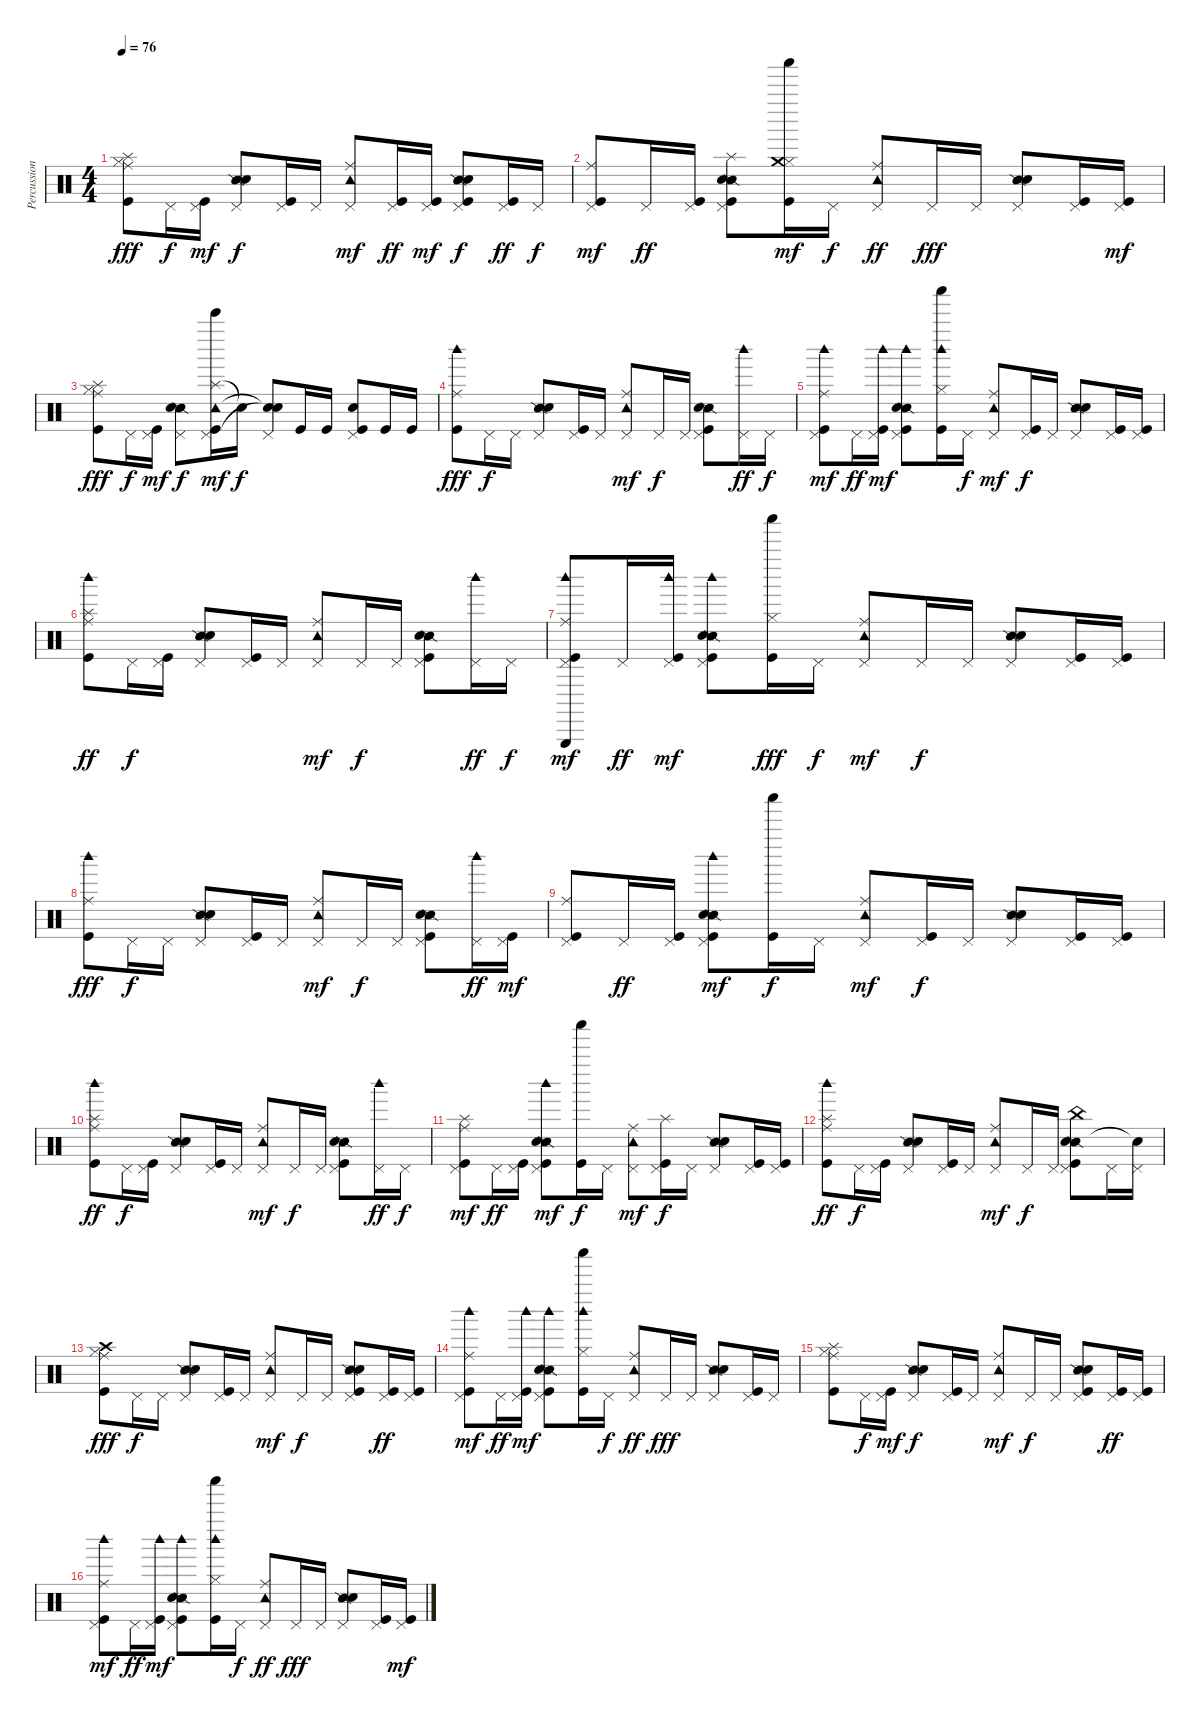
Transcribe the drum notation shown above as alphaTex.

\track ("Percussion" "Percussion") {instrument percussion}
\staff {score}
\articulation defaults
\ts (4 4)
\tempo 76
\clef neutral
\ks c
("Splash (hit)" "Ride (middle)" "Kick (hit)" "Hi-Hat (closed)").8{dy fff} "Pedal Hi-Hat (hit)".16{dy f} ("Pedal Hi-Hat (hit)" "Kick (hit)").16{dy mf} ("Pedal Hi-Hat (hit)" "Snare (side stick) 2" "Hand Clap (hit)").8{dy f} ("Pedal Hi-Hat (hit)" "Kick (hit)").16 "Pedal Hi-Hat (hit)".16 ("Pedal Hi-Hat (hit)" "Tambourine (hit)" "Ride (middle)").8{dy mf} ("Pedal Hi-Hat (hit)" "Kick (hit)").16{dy ff} ("Pedal Hi-Hat (hit)" "Kick (hit)").16{dy mf} ("Pedal Hi-Hat (hit)" "Snare (side stick) 2" "Kick (hit)" "Hand Clap (hit)").8{dy f} ("Pedal Hi-Hat (hit)" "Kick (hit)").16{dy ff} "Pedal Hi-Hat (hit)".16{dy f} |
("Pedal Hi-Hat (hit)" "Ride (middle)" "Kick (hit)").8{dy mf} "Pedal Hi-Hat (hit)".16{dy ff} ("Pedal Hi-Hat (hit)" "Kick (hit)").16 ("Splash (hit)" "Pedal Hi-Hat (hit)" "Snare (side stick) 2" "Kick (hit)" "Hand Clap (hit)").8 ("Hi-Hat (closed)" "Shaker (hit)" "Kick (hit)" "Crash medium (hit)").16{dy mf} "Pedal Hi-Hat (hit)".16{dy f} ("Pedal Hi-Hat (hit)" "Ride (middle)" "Tambourine (hit)").8{dy ff} "Pedal Hi-Hat (hit)".16{dy fff} "Pedal Hi-Hat (hit)".16 ("Pedal Hi-Hat (hit)" "Snare (side stick) 2" "Hand Clap (hit)").8 ("Pedal Hi-Hat (hit)" "Kick (hit)").16 ("Pedal Hi-Hat (hit)" "Kick (hit)").16{dy mf} |
("Splash (hit)" "Ride (middle)" "Kick (hit)" "Hi-Hat (closed)").8{dy fff} "Pedal Hi-Hat (hit)".16{dy f} ("Pedal Hi-Hat (hit)" "Kick (hit)").16{dy mf} ("Pedal Hi-Hat (hit)" "Snare (side stick) 2" "Hand Clap (hit)").8{dy f} ("Splash (hit)" "Pedal Hi-Hat (hit)" "Tambourine (hit)" "Kick (hit)" "Bell Tree (hit)").16{dy mf} "Snare (hit)"{t}.16{dy f} ("Pedal Hi-Hat (hit)" "Snare (hit)"{t} "Snare (hit)"{t}).8 "Kick (hit)".16 "Kick (hit)".16 ("Pedal Hi-Hat (hit)" "Kick (hit)" "Hand Clap (hit)").8 "Kick (hit)".16 "Kick (hit)".16 |
("Ride (middle)" "Woodblock high (hit)" "Kick (hit)").8{dy fff} "Pedal Hi-Hat (hit)".16{dy f} "Pedal Hi-Hat (hit)".16 ("Pedal Hi-Hat (hit)" "Snare (side stick) 2" "Hand Clap (hit)").8 ("Pedal Hi-Hat (hit)" "Kick (hit)").16 "Pedal Hi-Hat (hit)".16 ("Pedal Hi-Hat (hit)" "Tambourine (hit)" "Ride (middle)").8{dy mf} "Pedal Hi-Hat (hit)".16{dy f} "Pedal Hi-Hat (hit)".16 ("Pedal Hi-Hat (hit)" "Snare (side stick) 2" "Kick (hit)" "Hand Clap (hit)").8 ("Pedal Hi-Hat (hit)" "Woodblock high (hit)").16{dy ff} "Pedal Hi-Hat (hit)".16{dy f} |
("Pedal Hi-Hat (hit)" "Ride (middle)" "Kick (hit)" "Woodblock high (hit)").8{dy mf} "Pedal Hi-Hat (hit)".16{dy ff} ("Pedal Hi-Hat (hit)" "Kick (hit)" "Woodblock high (hit)").16{dy mf} ("Pedal Hi-Hat (hit)" "Snare (side stick) 2" "Kick (hit)" "Woodblock high (hit)" "Hand Clap (hit)").8 ("Hi-Hat (closed)" "Shaker (hit)" "Kick (hit)" "Woodblock high (hit)").16 "Pedal Hi-Hat (hit)".16{dy f} ("Pedal Hi-Hat (hit)" "Ride (middle)" "Tambourine (hit)").8{dy mf} ("Pedal Hi-Hat (hit)" "Kick (hit)").16{dy f} "Pedal Hi-Hat (hit)".16 ("Pedal Hi-Hat (hit)" "Snare (side stick) 2" "Hand Clap (hit)").8 ("Pedal Hi-Hat (hit)" "Kick (hit)").16 ("Pedal Hi-Hat (hit)" "Kick (hit)").16 |
("Ride (middle)" "Woodblock high (hit)" "Kick (hit)" "Splash (hit)").8{dy ff} "Pedal Hi-Hat (hit)".16{dy f} ("Pedal Hi-Hat (hit)" "Kick (hit)").16 ("Pedal Hi-Hat (hit)" "Snare (side stick) 2" "Hand Clap (hit)").8 ("Pedal Hi-Hat (hit)" "Kick (hit)").16 "Pedal Hi-Hat (hit)".16 ("Pedal Hi-Hat (hit)" "Tambourine (hit)" "Ride (middle)").8{dy mf} "Pedal Hi-Hat (hit)".16{dy f} "Pedal Hi-Hat (hit)".16 ("Pedal Hi-Hat (hit)" "Snare (side stick) 2" "Kick (hit)" "Hand Clap (hit)").8 ("Pedal Hi-Hat (hit)" "Woodblock high (hit)").16{dy ff} "Pedal Hi-Hat (hit)".16{dy f} |
("Pedal Hi-Hat (hit)" "Ride (middle)" "Kick (hit)" "Woodblock high (hit)" "Triangle (hit)").8{dy mf} "Pedal Hi-Hat (hit)".16{dy ff} ("Pedal Hi-Hat (hit)" "Kick (hit)" "Woodblock high (hit)").16{dy mf} ("Pedal Hi-Hat (hit)" "Snare (side stick) 2" "Kick (hit)" "Woodblock high (hit)" "Hand Clap (hit)").8 ("Hi-Hat (closed)" "Shaker (hit)" "Kick (hit)").16{dy fff} "Pedal Hi-Hat (hit)".16{dy f} ("Pedal Hi-Hat (hit)" "Ride (middle)" "Tambourine (hit)").8{dy mf} "Pedal Hi-Hat (hit)".16{dy f} "Pedal Hi-Hat (hit)".16 ("Pedal Hi-Hat (hit)" "Snare (side stick) 2" "Hand Clap (hit)").8 ("Pedal Hi-Hat (hit)" "Kick (hit)").16 ("Pedal Hi-Hat (hit)" "Kick (hit)").16 |
("Ride (middle)" "Woodblock high (hit)" "Kick (hit)").8{dy fff} "Pedal Hi-Hat (hit)".16{dy f} "Pedal Hi-Hat (hit)".16 ("Pedal Hi-Hat (hit)" "Snare (side stick) 2" "Hand Clap (hit)").8 ("Pedal Hi-Hat (hit)" "Kick (hit)").16 "Pedal Hi-Hat (hit)".16 ("Pedal Hi-Hat (hit)" "Tambourine (hit)" "Ride (middle)").8{dy mf} "Pedal Hi-Hat (hit)".16{dy f} "Pedal Hi-Hat (hit)".16 ("Pedal Hi-Hat (hit)" "Snare (side stick) 2" "Kick (hit)" "Hand Clap (hit)").8 ("Pedal Hi-Hat (hit)" "Woodblock high (hit)").16{dy ff} ("Pedal Hi-Hat (hit)" "Kick (hit)").16{dy mf} |
("Pedal Hi-Hat (hit)" "Ride (middle)" "Kick (hit)").8 "Pedal Hi-Hat (hit)".16{dy ff} ("Pedal Hi-Hat (hit)" "Kick (hit)").16 ("Pedal Hi-Hat (hit)" "Snare (side stick) 2" "Kick (hit)" "Woodblock high (hit)" "Hand Clap (hit)").8{dy mf} ("Shaker (hit)" "Kick (hit)").16{dy f} "Pedal Hi-Hat (hit)".16 ("Pedal Hi-Hat (hit)" "Ride (middle)" "Tambourine (hit)").8{dy mf} ("Pedal Hi-Hat (hit)" "Kick (hit)").16{dy f} "Pedal Hi-Hat (hit)".16 ("Pedal Hi-Hat (hit)" "Snare (side stick) 2" "Hand Clap (hit)").8 ("Pedal Hi-Hat (hit)" "Kick (hit)").16 ("Pedal Hi-Hat (hit)" "Kick (hit)").16 |
("Ride (middle)" "Woodblock high (hit)" "Kick (hit)" "Splash (hit)").8{dy ff} "Pedal Hi-Hat (hit)".16{dy f} ("Pedal Hi-Hat (hit)" "Kick (hit)").16 ("Pedal Hi-Hat (hit)" "Snare (side stick) 2" "Hand Clap (hit)").8 ("Pedal Hi-Hat (hit)" "Kick (hit)").16 "Pedal Hi-Hat (hit)".16 ("Pedal Hi-Hat (hit)" "Tambourine (hit)" "Ride (middle)").8{dy mf} "Pedal Hi-Hat (hit)".16{dy f} "Pedal Hi-Hat (hit)".16 ("Pedal Hi-Hat (hit)" "Snare (side stick) 2" "Kick (hit)" "Hand Clap (hit)").8 ("Pedal Hi-Hat (hit)" "Woodblock high (hit)").16{dy ff} "Pedal Hi-Hat (hit)".16{dy f} |
("Pedal Hi-Hat (hit)" "Ride (middle)" "Kick (hit)" "Splash (hit)").8{dy mf} "Pedal Hi-Hat (hit)".16{dy ff} ("Pedal Hi-Hat (hit)" "Kick (hit)").16 ("Pedal Hi-Hat (hit)" "Snare (side stick) 2" "Kick (hit)" "Woodblock high (hit)" "Hand Clap (hit)").8{dy mf} ("Shaker (hit)" "Kick (hit)").16{dy f} "Pedal Hi-Hat (hit)".16 ("Pedal Hi-Hat (hit)" "Ride (middle)" "Tambourine (hit)").8{dy mf} ("Pedal Hi-Hat (hit)" "Kick (hit)" "Splash (hit)").16{dy f} "Pedal Hi-Hat (hit)".16 ("Pedal Hi-Hat (hit)" "Snare (side stick) 2" "Hand Clap (hit)").8 ("Pedal Hi-Hat (hit)" "Kick (hit)").16 ("Pedal Hi-Hat (hit)" "Kick (hit)").16 |
("Ride (middle)" "Woodblock high (hit)" "Kick (hit)" "Splash (hit)").8{dy ff} "Pedal Hi-Hat (hit)".16{dy f} ("Pedal Hi-Hat (hit)" "Kick (hit)").16 ("Pedal Hi-Hat (hit)" "Snare (side stick) 2" "Hand Clap (hit)").8 ("Pedal Hi-Hat (hit)" "Kick (hit)").16 "Pedal Hi-Hat (hit)".16 ("Pedal Hi-Hat (hit)" "Tambourine (hit)" "Ride (middle)").8{dy mf} "Pedal Hi-Hat (hit)".16{dy f} "Pedal Hi-Hat (hit)".16 ("Pedal Hi-Hat (hit)" "Snare (side stick) 2" "Kick (hit)" "Hand Clap (hit)" "China (hit)").8 "Pedal Hi-Hat (hit)".16 ("Pedal Hi-Hat (hit)" "Snare (hit)"{t}).16 |
("Crash high (hit)" "Ride (middle)" "Kick (hit)" "Hi-Hat (closed)").8{dy fff} "Pedal Hi-Hat (hit)".16{dy f} "Pedal Hi-Hat (hit)".16 ("Pedal Hi-Hat (hit)" "Snare (side stick) 2" "Hand Clap (hit)").8 ("Pedal Hi-Hat (hit)" "Kick (hit)").16 "Pedal Hi-Hat (hit)".16 ("Pedal Hi-Hat (hit)" "Tambourine (hit)" "Ride (middle)").8{dy mf} "Pedal Hi-Hat (hit)".16{dy f} "Pedal Hi-Hat (hit)".16 ("Pedal Hi-Hat (hit)" "Snare (side stick) 2" "Kick (hit)" "Hand Clap (hit)").8 ("Pedal Hi-Hat (hit)" "Kick (hit)").16{dy ff} ("Pedal Hi-Hat (hit)" "Kick (hit)").16 |
("Pedal Hi-Hat (hit)" "Ride (middle)" "Kick (hit)" "Woodblock high (hit)").8{dy mf} "Pedal Hi-Hat (hit)".16{dy ff} ("Pedal Hi-Hat (hit)" "Kick (hit)" "Woodblock high (hit)").16{dy mf} ("Pedal Hi-Hat (hit)" "Snare (side stick) 2" "Kick (hit)" "Woodblock high (hit)" "Hand Clap (hit)").8 ("Hi-Hat (closed)" "Shaker (hit)" "Kick (hit)" "Woodblock high (hit)").16 "Pedal Hi-Hat (hit)".16{dy f} ("Pedal Hi-Hat (hit)" "Ride (middle)" "Tambourine (hit)").8{dy ff} "Pedal Hi-Hat (hit)".16{dy fff} "Pedal Hi-Hat (hit)".16 ("Pedal Hi-Hat (hit)" "Snare (side stick) 2" "Hand Clap (hit)").8 ("Pedal Hi-Hat (hit)" "Kick (hit)").16 "Pedal Hi-Hat (hit)".16 |
("Splash (hit)" "Ride (middle)" "Kick (hit)" "Hi-Hat (closed)").8 "Pedal Hi-Hat (hit)".16{dy f} ("Pedal Hi-Hat (hit)" "Kick (hit)").16{dy mf} ("Pedal Hi-Hat (hit)" "Snare (side stick) 2" "Hand Clap (hit)").8{dy f} ("Pedal Hi-Hat (hit)" "Kick (hit)").16 "Pedal Hi-Hat (hit)".16 ("Pedal Hi-Hat (hit)" "Tambourine (hit)" "Ride (middle)").8{dy mf} "Pedal Hi-Hat (hit)".16{dy f} "Pedal Hi-Hat (hit)".16 ("Pedal Hi-Hat (hit)" "Snare (side stick) 2" "Kick (hit)" "Hand Clap (hit)").8 ("Pedal Hi-Hat (hit)" "Kick (hit)").16{dy ff} ("Pedal Hi-Hat (hit)" "Kick (hit)").16 |
("Pedal Hi-Hat (hit)" "Ride (middle)" "Kick (hit)" "Woodblock high (hit)").8{dy mf} "Pedal Hi-Hat (hit)".16{dy ff} ("Pedal Hi-Hat (hit)" "Kick (hit)" "Woodblock high (hit)").16{dy mf} ("Pedal Hi-Hat (hit)" "Snare (side stick) 2" "Kick (hit)" "Woodblock high (hit)" "Hand Clap (hit)").8 ("Hi-Hat (closed)" "Shaker (hit)" "Kick (hit)" "Woodblock high (hit)").16 "Pedal Hi-Hat (hit)".16{dy f} ("Pedal Hi-Hat (hit)" "Ride (middle)" "Tambourine (hit)").8{dy ff} "Pedal Hi-Hat (hit)".16{dy fff} "Pedal Hi-Hat (hit)".16 ("Pedal Hi-Hat (hit)" "Snare (side stick) 2" "Hand Clap (hit)").8 ("Pedal Hi-Hat (hit)" "Kick (hit)").16 ("Pedal Hi-Hat (hit)" "Kick (hit)").16{dy mf}
